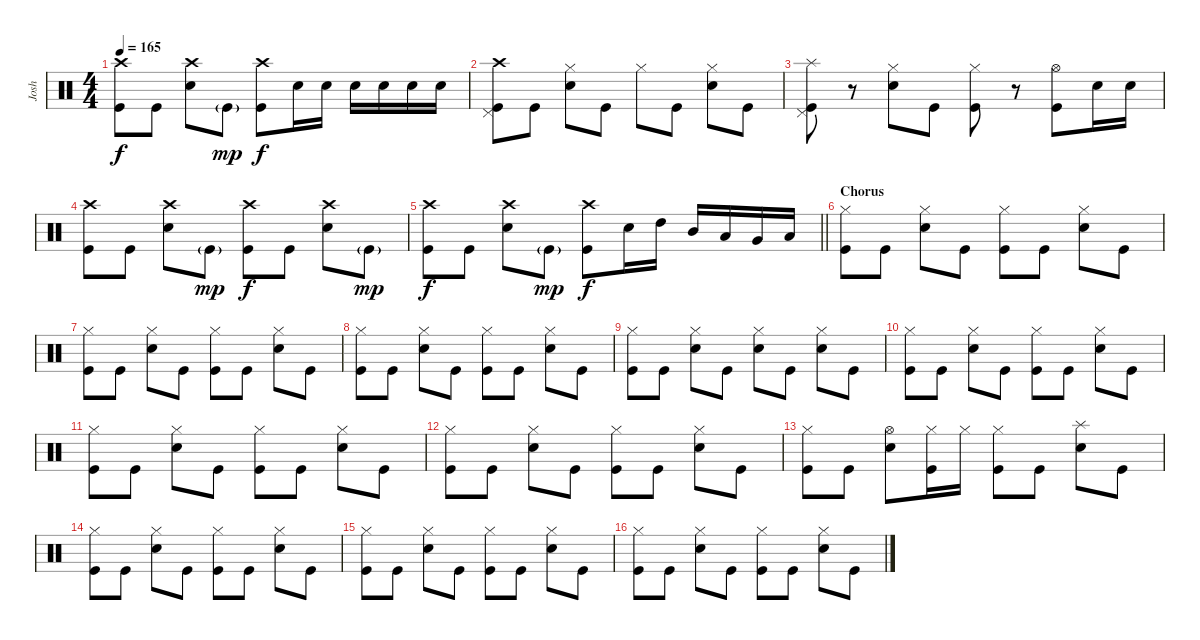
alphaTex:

\track ("Josh" "Josh") {instrument percussion}
\staff {score}
\articulation defaults
\ts (4 4)
\tempo 165
\clef neutral
\ks c
("Crash high (hit)" "Kick (hit)").8{dy f} "Kick (hit)".8 ("Crash high (hit)" "Snare (hit) 2").8 "Kick (hit)"{g}.8{dy mp} ("Crash high (hit)" "Kick (hit)").8{dy f} "Snare (hit) 2".16 "Snare (hit) 2".16 "Snare (hit) 2".16 "Snare (hit) 2".16 "Snare (hit) 2".16 "Snare (hit) 2".16 |
("Crash high (hit)" "Pedal Hi-Hat (hit)" "Kick (hit)").8 "Kick (hit)".8 ("Hi-Hat (closed)" "Snare (hit) 2").8 "Kick (hit)".8 "Hi-Hat (closed)".8 "Kick (hit)".8 ("Hi-Hat (closed)" "Snare (hit) 2").8 "Kick (hit)".8 |
("Splash (hit)" "Pedal Hi-Hat (hit)" "Kick (hit)").8 r.8 ("Hi-Hat (closed)" "Snare (hit) 2").8 "Kick (hit)".8 ("Hi-Hat (closed)" "Kick (hit)").8 r.8 ("Hi-Hat (open)" "Kick (hit)").8 "Snare (hit) 2".16 "Snare (hit) 2".16 |
("Crash high (hit)" "Kick (hit)").8 "Kick (hit)".8 ("Crash high (hit)" "Snare (hit) 2").8 "Kick (hit)"{g}.8{dy mp} ("Crash high (hit)" "Kick (hit)").8{dy f} "Kick (hit)".8 ("Crash high (hit)" "Snare (hit) 2").8 "Kick (hit)"{g}.8{dy mp} |
\barLineRight lightlight
("Crash high (hit)" "Kick (hit)").8{dy f} "Kick (hit)".8 ("Crash high (hit)" "Snare (hit) 2").8 "Kick (hit)"{g}.8{dy mp} ("Crash high (hit)" "Kick (hit)").8{dy f} "Snare (hit) 2".16 "High Tom (hit)".16 "Mid Tom (hit)".16 "Low Tom (hit)".16 "Very Low Tom (hit)".16 "Low Floor Tom (hit)".16 |
\section ("" "Chorus")
("Hi-Hat (closed)" "Kick (hit)").8 "Kick (hit)".8 ("Hi-Hat (closed)" "Snare (hit) 2").8 "Kick (hit)".8 ("Hi-Hat (closed)" "Kick (hit)").8 "Kick (hit)".8 ("Hi-Hat (closed)" "Snare (hit) 2").8 "Kick (hit)".8 |
("Hi-Hat (closed)" "Kick (hit)").8 "Kick (hit)".8 ("Hi-Hat (closed)" "Snare (hit) 2").8 "Kick (hit)".8 ("Hi-Hat (closed)" "Kick (hit)").8 "Kick (hit)".8 ("Hi-Hat (closed)" "Snare (hit) 2").8 "Kick (hit)".8 |
("Hi-Hat (closed)" "Kick (hit)").8 "Kick (hit)".8 ("Hi-Hat (closed)" "Snare (hit) 2").8 "Kick (hit)".8 ("Hi-Hat (closed)" "Kick (hit)").8 "Kick (hit)".8 ("Hi-Hat (closed)" "Snare (hit) 2").8 "Kick (hit)".8 |
("Hi-Hat (closed)" "Kick (hit)").8 "Kick (hit)".8 ("Hi-Hat (closed)" "Snare (hit) 2").8 "Kick (hit)".8 ("Hi-Hat (closed)" "Snare (hit) 2").8 "Kick (hit)".8 ("Hi-Hat (closed)" "Snare (hit) 2").8 "Kick (hit)".8 |
("Hi-Hat (closed)" "Kick (hit)").8 "Kick (hit)".8 ("Hi-Hat (closed)" "Snare (hit) 2").8 "Kick (hit)".8 ("Hi-Hat (closed)" "Kick (hit)").8 "Kick (hit)".8 ("Hi-Hat (closed)" "Snare (hit) 2").8 "Kick (hit)".8 |
("Hi-Hat (closed)" "Kick (hit)").8 "Kick (hit)".8 ("Hi-Hat (closed)" "Snare (hit) 2").8 "Kick (hit)".8 ("Hi-Hat (closed)" "Kick (hit)").8 "Kick (hit)".8 ("Hi-Hat (closed)" "Snare (hit) 2").8 "Kick (hit)".8 |
("Hi-Hat (closed)" "Kick (hit)").8 "Kick (hit)".8 ("Hi-Hat (closed)" "Snare (hit) 2").8 "Kick (hit)".8 ("Hi-Hat (closed)" "Kick (hit)").8 "Kick (hit)".8 ("Hi-Hat (closed)" "Snare (hit) 2").8 "Kick (hit)".8 |
("Hi-Hat (closed)" "Kick (hit)").8 "Kick (hit)".8 ("Hi-Hat (open)" "Snare (hit) 2").8 ("Hi-Hat (closed)" "Kick (hit)").16 "Hi-Hat (closed)".16 ("Hi-Hat (closed)" "Kick (hit)").8 "Kick (hit)".8 ("Splash (hit)" "Snare (hit) 2").8 "Kick (hit)".8 |
("Hi-Hat (closed)" "Kick (hit)").8 "Kick (hit)".8 ("Hi-Hat (closed)" "Snare (hit) 2").8 "Kick (hit)".8 ("Hi-Hat (closed)" "Kick (hit)").8 "Kick (hit)".8 ("Hi-Hat (closed)" "Snare (hit) 2").8 "Kick (hit)".8 |
("Hi-Hat (closed)" "Kick (hit)").8 "Kick (hit)".8 ("Hi-Hat (closed)" "Snare (hit) 2").8 "Kick (hit)".8 ("Hi-Hat (closed)" "Kick (hit)").8 "Kick (hit)".8 ("Hi-Hat (closed)" "Snare (hit) 2").8 "Kick (hit)".8 |
("Hi-Hat (closed)" "Kick (hit)").8 "Kick (hit)".8 ("Hi-Hat (closed)" "Snare (hit) 2").8 "Kick (hit)".8 ("Hi-Hat (closed)" "Kick (hit)").8 "Kick (hit)".8 ("Hi-Hat (closed)" "Snare (hit) 2").8 "Kick (hit)".8
